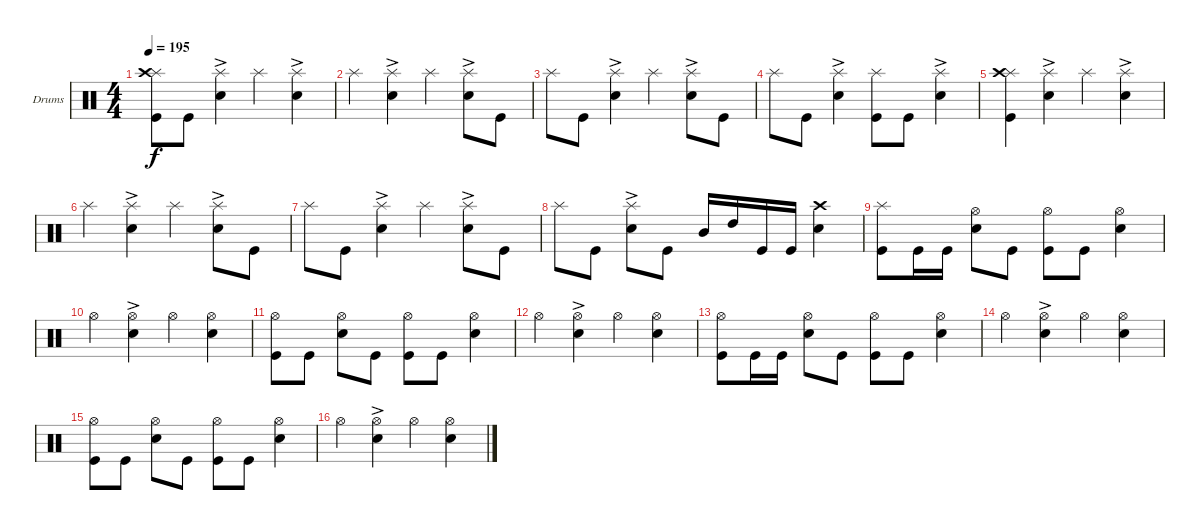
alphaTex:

\defaultSystemsLayout 4
\bracketExtendMode groupsimilarinstruments
\firstSystemTrackNameOrientation horizontal
\otherSystemsTrackNameOrientation horizontal
\track ("Drumkit" "Drums") {instrument percussion}
\staff {score}
\articulation defaults
\ts (4 4)
\tempo 195
\clef neutral
\ks c
("Kick (hit)" "Splash (hit)" "Crash high (hit)").8{dy f} "Kick (hit)".8 ("Snare (hit) 2"{ac} "Splash (hit)").4 "Splash (hit)".4 ("Splash (hit)" "Snare (hit) 2"{ac}).4 |
"Splash (hit)".4 ("Splash (hit)" "Snare (hit) 2"{ac}).4 "Splash (hit)".4 ("Splash (hit)" "Snare (hit) 2"{ac}).8 "Kick (hit)".8 |
"Splash (hit)".8 "Kick (hit)".8 ("Splash (hit)" "Snare (hit) 2"{ac}).4 "Splash (hit)".4 ("Splash (hit)" "Snare (hit) 2"{ac}).8 "Kick (hit)".8 |
"Splash (hit)".8 "Kick (hit)".8 ("Snare (hit) 2"{ac} "Splash (hit)").4 ("Splash (hit)" "Kick (hit)").8 "Kick (hit)".8 ("Splash (hit)" "Snare (hit) 2"{ac}).4 |
("Kick (hit)" "Splash (hit)" "Crash high (hit)").4 ("Snare (hit) 2"{ac} "Splash (hit)").4 "Splash (hit)".4 ("Splash (hit)" "Snare (hit) 2"{ac}).4 |
"Splash (hit)".4 ("Splash (hit)" "Snare (hit) 2"{ac}).4 "Splash (hit)".4 ("Splash (hit)" "Snare (hit) 2"{ac}).8 "Kick (hit)".8 |
"Splash (hit)".8 "Kick (hit)".8 ("Splash (hit)" "Snare (hit) 2"{ac}).4 "Splash (hit)".4 ("Splash (hit)" "Snare (hit) 2"{ac}).8 "Kick (hit)".8 |
"Splash (hit)".8 "Kick (hit)".8 ("Snare (hit) 2"{ac} "Splash (hit)").8 "Kick (hit)".8 "Mid Tom (hit)".16 "High Tom (hit)".16 "Kick (hit)".16 "Kick (hit)".16 ("Snare (hit) 2" "Crash high (hit)").4 |
("Kick (hit)" "Splash (hit)").8 "Kick (hit)".16 "Kick (hit)".16 ("Snare (hit) 2" "Hi-Hat (open)").8 "Kick (hit)".8 ("Kick (hit)" "Hi-Hat (open)").8 "Kick (hit)".8 ("Snare (hit) 2" "Hi-Hat (open)").4 |
"Hi-Hat (open)".4 ("Snare (hit) 2"{ac} "Hi-Hat (open)").4 "Hi-Hat (open)".4 ("Snare (hit) 2" "Hi-Hat (open)").4 |
("Kick (hit)" "Hi-Hat (open)").8 "Kick (hit)".8 ("Snare (hit) 2" "Hi-Hat (open)").8 "Kick (hit)".8 ("Kick (hit)" "Hi-Hat (open)").8 "Kick (hit)".8 ("Snare (hit) 2" "Hi-Hat (open)").4 |
"Hi-Hat (open)".4 ("Snare (hit) 2"{ac} "Hi-Hat (open)").4 "Hi-Hat (open)".4 ("Snare (hit) 2" "Hi-Hat (open)").4 |
("Kick (hit)" "Hi-Hat (open)").8 "Kick (hit)".16 "Kick (hit)".16 ("Snare (hit) 2" "Hi-Hat (open)").8 "Kick (hit)".8 ("Kick (hit)" "Hi-Hat (open)").8 "Kick (hit)".8 ("Snare (hit) 2" "Hi-Hat (open)").4 |
"Hi-Hat (open)".4 ("Snare (hit) 2"{ac} "Hi-Hat (open)").4 "Hi-Hat (open)".4 ("Snare (hit) 2" "Hi-Hat (open)").4 |
("Kick (hit)" "Hi-Hat (open)").8 "Kick (hit)".8 ("Snare (hit) 2" "Hi-Hat (open)").8 "Kick (hit)".8 ("Kick (hit)" "Hi-Hat (open)").8 "Kick (hit)".8 ("Snare (hit) 2" "Hi-Hat (open)").4 |
"Hi-Hat (open)".4 ("Snare (hit) 2"{ac} "Hi-Hat (open)").4 "Hi-Hat (open)".4 ("Snare (hit) 2" "Hi-Hat (open)").4
